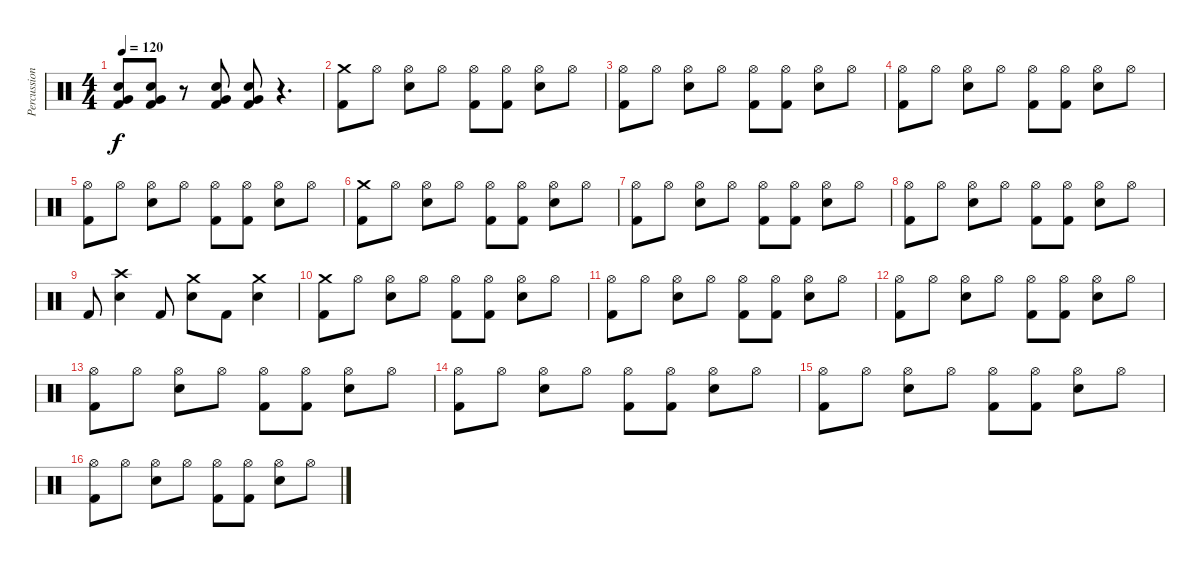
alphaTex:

\track ("Percussions" "Percussion") {instrument percussion}
\staff {score}
\articulation defaults
\ts (4 4)
\tempo 120
\clef neutral
\ks c
("Very Low Tom (hit)" "Electric Snare (hit)" "Kick (hit) 2").8{dy f} ("Very Low Tom (hit)" "Electric Snare (hit)" "Kick (hit) 2").8 r.8 ("Very Low Tom (hit)" "Electric Snare (hit)" "Kick (hit) 2").8 ("Very Low Tom (hit)" "Electric Snare (hit)" "Kick (hit) 2").8 r.4{d} |
("Crash medium (hit)" "Kick (hit) 2").8 "Hi-Hat (open)".8 ("Hi-Hat (open)" "Electric Snare (hit)").8 "Hi-Hat (open)".8 ("Hi-Hat (open)" "Kick (hit) 2").8 ("Hi-Hat (open)" "Kick (hit) 2").8 ("Hi-Hat (open)" "Electric Snare (hit)").8 "Hi-Hat (open)".8 |
("Hi-Hat (open)" "Kick (hit) 2").8 "Hi-Hat (open)".8 ("Hi-Hat (open)" "Electric Snare (hit)").8 "Hi-Hat (open)".8 ("Hi-Hat (open)" "Kick (hit) 2").8 ("Hi-Hat (open)" "Kick (hit) 2").8 ("Hi-Hat (open)" "Electric Snare (hit)").8 "Hi-Hat (open)".8 |
("Hi-Hat (open)" "Kick (hit) 2").8 "Hi-Hat (open)".8 ("Hi-Hat (open)" "Electric Snare (hit)").8 "Hi-Hat (open)".8 ("Hi-Hat (open)" "Kick (hit) 2").8 ("Hi-Hat (open)" "Kick (hit) 2").8 ("Hi-Hat (open)" "Electric Snare (hit)").8 "Hi-Hat (open)".8 |
("Hi-Hat (open)" "Kick (hit) 2").8 "Hi-Hat (open)".8 ("Hi-Hat (open)" "Electric Snare (hit)").8 "Hi-Hat (open)".8 ("Hi-Hat (open)" "Kick (hit) 2").8 ("Hi-Hat (open)" "Kick (hit) 2").8 ("Hi-Hat (open)" "Electric Snare (hit)").8 "Hi-Hat (open)".8 |
("Crash medium (hit)" "Kick (hit) 2").8 "Hi-Hat (open)".8 ("Hi-Hat (open)" "Electric Snare (hit)").8 "Hi-Hat (open)".8 ("Hi-Hat (open)" "Kick (hit) 2").8 ("Hi-Hat (open)" "Kick (hit) 2").8 ("Hi-Hat (open)" "Electric Snare (hit)").8 "Hi-Hat (open)".8 |
("Hi-Hat (open)" "Kick (hit) 2").8 "Hi-Hat (open)".8 ("Hi-Hat (open)" "Electric Snare (hit)").8 "Hi-Hat (open)".8 ("Hi-Hat (open)" "Kick (hit) 2").8 ("Hi-Hat (open)" "Kick (hit) 2").8 ("Hi-Hat (open)" "Electric Snare (hit)").8 "Hi-Hat (open)".8 |
("Hi-Hat (open)" "Kick (hit) 2").8 "Hi-Hat (open)".8 ("Hi-Hat (open)" "Electric Snare (hit)").8 "Hi-Hat (open)".8 ("Hi-Hat (open)" "Kick (hit) 2").8 ("Hi-Hat (open)" "Kick (hit) 2").8 ("Hi-Hat (open)" "Electric Snare (hit)").8 "Hi-Hat (open)".8 |
"Kick (hit) 2".8 ("Crash high (hit)" "Electric Snare (hit)").4 "Kick (hit) 2".8 ("Crash medium (hit)" "Electric Snare (hit)").8 "Kick (hit) 2".8 ("Crash medium (hit)" "Electric Snare (hit)").4 |
("Crash medium (hit)" "Kick (hit) 2").8 "Hi-Hat (open)".8 ("Hi-Hat (open)" "Electric Snare (hit)").8 "Hi-Hat (open)".8 ("Hi-Hat (open)" "Kick (hit) 2").8 ("Hi-Hat (open)" "Kick (hit) 2").8 ("Hi-Hat (open)" "Electric Snare (hit)").8 "Hi-Hat (open)".8 |
("Hi-Hat (open)" "Kick (hit) 2").8 "Hi-Hat (open)".8 ("Hi-Hat (open)" "Electric Snare (hit)").8 "Hi-Hat (open)".8 ("Hi-Hat (open)" "Kick (hit) 2").8 ("Hi-Hat (open)" "Kick (hit) 2").8 ("Hi-Hat (open)" "Electric Snare (hit)").8 "Hi-Hat (open)".8 |
("Hi-Hat (open)" "Kick (hit) 2").8 "Hi-Hat (open)".8 ("Hi-Hat (open)" "Electric Snare (hit)").8 "Hi-Hat (open)".8 ("Hi-Hat (open)" "Kick (hit) 2").8 ("Hi-Hat (open)" "Kick (hit) 2").8 ("Hi-Hat (open)" "Electric Snare (hit)").8 "Hi-Hat (open)".8 |
("Hi-Hat (open)" "Kick (hit) 2").8 "Hi-Hat (open)".8 ("Hi-Hat (open)" "Electric Snare (hit)").8 "Hi-Hat (open)".8 ("Hi-Hat (open)" "Kick (hit) 2").8 ("Hi-Hat (open)" "Kick (hit) 2").8 ("Hi-Hat (open)" "Electric Snare (hit)").8 "Hi-Hat (open)".8 |
("Hi-Hat (open)" "Kick (hit) 2").8 "Hi-Hat (open)".8 ("Hi-Hat (open)" "Electric Snare (hit)").8 "Hi-Hat (open)".8 ("Hi-Hat (open)" "Kick (hit) 2").8 ("Hi-Hat (open)" "Kick (hit) 2").8 ("Hi-Hat (open)" "Electric Snare (hit)").8 "Hi-Hat (open)".8 |
("Hi-Hat (open)" "Kick (hit) 2").8 "Hi-Hat (open)".8 ("Hi-Hat (open)" "Electric Snare (hit)").8 "Hi-Hat (open)".8 ("Hi-Hat (open)" "Kick (hit) 2").8 ("Hi-Hat (open)" "Kick (hit) 2").8 ("Hi-Hat (open)" "Electric Snare (hit)").8 "Hi-Hat (open)".8 |
("Hi-Hat (open)" "Kick (hit) 2").8 "Hi-Hat (open)".8 ("Hi-Hat (open)" "Electric Snare (hit)").8 "Hi-Hat (open)".8 ("Hi-Hat (open)" "Kick (hit) 2").8 ("Hi-Hat (open)" "Kick (hit) 2").8 ("Hi-Hat (open)" "Electric Snare (hit)").8 "Hi-Hat (open)".8
